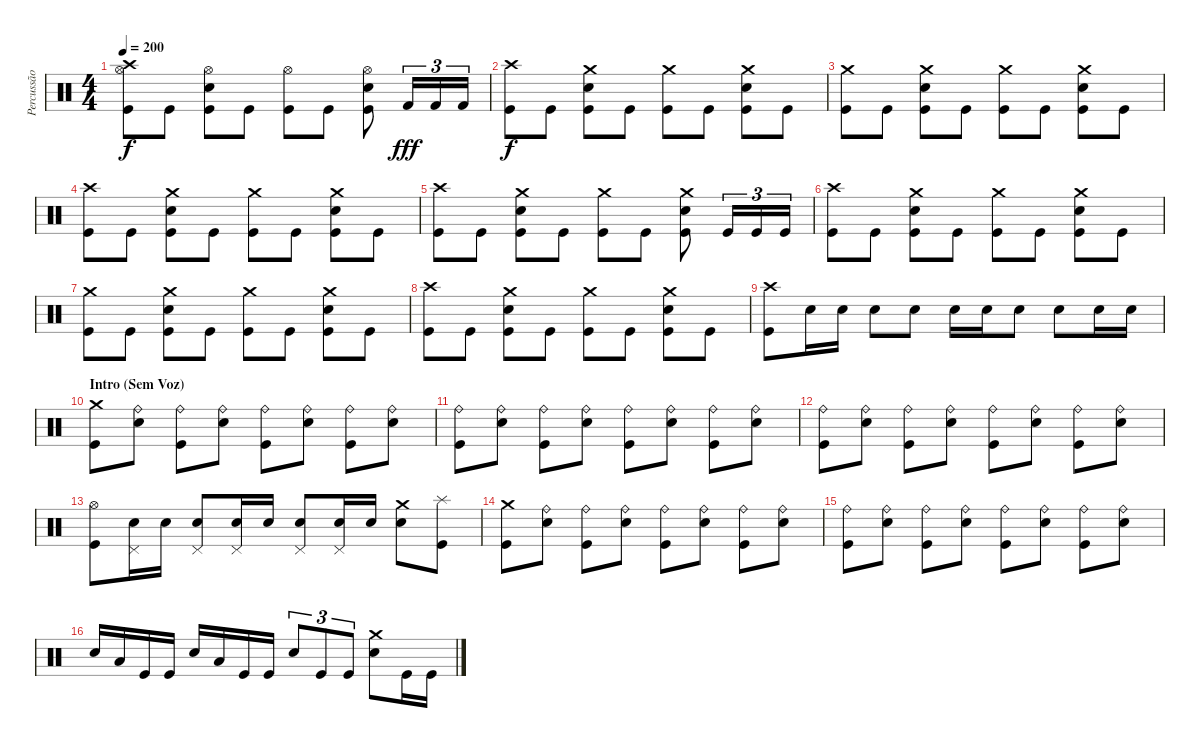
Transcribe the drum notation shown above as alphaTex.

\track ("Percussão" "Percussão") {instrument percussion}
\staff {score}
\articulation defaults
\ts (4 4)
\tempo 200
\clef neutral
\ks c
("Crash high (hit)" "Hi-Hat (open)" "Kick (hit)").8{dy f} "Kick (hit)".8 ("Hi-Hat (open)" "Electric Snare (hit)" "Kick (hit)").8 "Kick (hit)".8 ("Hi-Hat (open)" "Kick (hit)").8 "Kick (hit)".8 ("Hi-Hat (open)" "Electric Snare (hit)" "Kick (hit)").8 "Kick (hit) 2".16{tu (3 2) dy fff} "Kick (hit) 2".16{tu (3 2)} "Kick (hit) 2".16{tu (3 2)} |
("Crash high (hit)" "Kick (hit)").8{dy f} "Kick (hit)".8 ("Crash medium (hit)" "Electric Snare (hit)" "Kick (hit)").8 "Kick (hit)".8 ("Crash medium (hit)" "Kick (hit)").8 "Kick (hit)".8 ("Crash medium (hit)" "Electric Snare (hit)" "Kick (hit)").8 "Kick (hit)".8 |
("Crash medium (hit)" "Kick (hit)").8 "Kick (hit)".8 ("Crash medium (hit)" "Electric Snare (hit)" "Kick (hit)").8 "Kick (hit)".8 ("Crash medium (hit)" "Kick (hit)").8 "Kick (hit)".8 ("Crash medium (hit)" "Electric Snare (hit)" "Kick (hit)").8 "Kick (hit)".8 |
("Crash high (hit)" "Kick (hit)").8 "Kick (hit)".8 ("Crash medium (hit)" "Electric Snare (hit)" "Kick (hit)").8 "Kick (hit)".8 ("Crash medium (hit)" "Kick (hit)").8 "Kick (hit)".8 ("Crash medium (hit)" "Electric Snare (hit)" "Kick (hit)").8 "Kick (hit)".8 |
("Crash high (hit)" "Kick (hit)").8 "Kick (hit)".8 ("Crash medium (hit)" "Electric Snare (hit)" "Kick (hit)").8 "Kick (hit)".8 ("Crash medium (hit)" "Kick (hit)").8 "Kick (hit)".8 ("Crash medium (hit)" "Electric Snare (hit)" "Kick (hit)").8 "Kick (hit)".16{tu (3 2)} "Kick (hit)".16{tu (3 2)} "Kick (hit)".16{tu (3 2)} |
("Crash high (hit)" "Kick (hit)").8 "Kick (hit)".8 ("Crash medium (hit)" "Electric Snare (hit)" "Kick (hit)").8 "Kick (hit)".8 ("Crash medium (hit)" "Kick (hit)").8 "Kick (hit)".8 ("Crash medium (hit)" "Electric Snare (hit)" "Kick (hit)").8 "Kick (hit)".8 |
("Crash medium (hit)" "Kick (hit)").8 "Kick (hit)".8 ("Crash medium (hit)" "Electric Snare (hit)" "Kick (hit)").8 "Kick (hit)".8 ("Crash medium (hit)" "Kick (hit)").8 "Kick (hit)".8 ("Crash medium (hit)" "Electric Snare (hit)" "Kick (hit)").8 "Kick (hit)".8 |
("Crash high (hit)" "Kick (hit)").8 "Kick (hit)".8 ("Crash medium (hit)" "Electric Snare (hit)" "Kick (hit)").8 "Kick (hit)".8 ("Crash medium (hit)" "Kick (hit)").8 "Kick (hit)".8 ("Crash medium (hit)" "Electric Snare (hit)" "Kick (hit)").8 "Kick (hit)".8 |
("Crash high (hit)" "Kick (hit)").8 "Electric Snare (hit)".16 "Electric Snare (hit)".16 "Electric Snare (hit)".8 "Electric Snare (hit)".8 "Electric Snare (hit)".16 "Electric Snare (hit)".16 "Electric Snare (hit)".8 "Electric Snare (hit)".8 "Electric Snare (hit)".16 "Electric Snare (hit)".16 |
\section ("" "Intro (Sem Voz)")
("Crash medium (hit)" "Kick (hit)").8 ("Ride (bell)" "Electric Snare (hit)").8 ("Ride (bell)" "Kick (hit)").8 ("Ride (bell)" "Electric Snare (hit)").8 ("Ride (bell)" "Kick (hit)").8 ("Ride (bell)" "Electric Snare (hit)").8 ("Ride (bell)" "Kick (hit)").8 ("Ride (bell)" "Electric Snare (hit)").8 |
("Ride (bell)" "Kick (hit)").8 ("Ride (bell)" "Electric Snare (hit)").8 ("Ride (bell)" "Kick (hit)").8 ("Ride (bell)" "Electric Snare (hit)").8 ("Ride (bell)" "Kick (hit)").8 ("Ride (bell)" "Electric Snare (hit)").8 ("Ride (bell)" "Kick (hit)").8 ("Ride (bell)" "Electric Snare (hit)").8 |
("Ride (bell)" "Kick (hit)").8 ("Ride (bell)" "Electric Snare (hit)").8 ("Ride (bell)" "Kick (hit)").8 ("Ride (bell)" "Electric Snare (hit)").8 ("Ride (bell)" "Kick (hit)").8 ("Ride (bell)" "Electric Snare (hit)").8 ("Ride (bell)" "Kick (hit)").8 ("Ride (bell)" "Electric Snare (hit)").8 |
("Hi-Hat (open)" "Kick (hit)").8 ("Pedal Hi-Hat (hit)" "Electric Snare (hit)").16 "Electric Snare (hit)".16 ("Pedal Hi-Hat (hit)" "Electric Snare (hit)").8 ("Pedal Hi-Hat (hit)" "Electric Snare (hit)").16 "Electric Snare (hit)".16 ("Pedal Hi-Hat (hit)" "Electric Snare (hit)").8 ("Pedal Hi-Hat (hit)" "Electric Snare (hit)").16 "Electric Snare (hit)".16 ("Crash medium (hit)" "Electric Snare (hit)").8 ("Splash (hit)" "Kick (hit)").8 |
("Crash medium (hit)" "Kick (hit)").8 ("Ride (bell)" "Electric Snare (hit)").8 ("Ride (bell)" "Kick (hit)").8 ("Ride (bell)" "Electric Snare (hit)").8 ("Ride (bell)" "Kick (hit)").8 ("Ride (bell)" "Electric Snare (hit)").8 ("Ride (bell)" "Kick (hit)").8 ("Ride (bell)" "Electric Snare (hit)").8 |
("Ride (bell)" "Kick (hit)").8 ("Ride (bell)" "Electric Snare (hit)").8 ("Ride (bell)" "Kick (hit)").8 ("Ride (bell)" "Electric Snare (hit)").8 ("Ride (bell)" "Kick (hit)").8 ("Ride (bell)" "Electric Snare (hit)").8 ("Ride (bell)" "Kick (hit)").8 ("Ride (bell)" "Electric Snare (hit)").8 |
"Electric Snare (hit)".16 "Low Tom (hit)".16 "Kick (hit)".16 "Kick (hit)".16 "Electric Snare (hit)".16 "Low Tom (hit)".16 "Kick (hit)".16 "Kick (hit)".16 "Electric Snare (hit)".8{tu (3 2)} "Kick (hit)".8{tu (3 2)} "Kick (hit)".8{tu (3 2)} ("Crash medium (hit)" "Electric Snare (hit)").8 "Kick (hit)".16 "Kick (hit)".16
